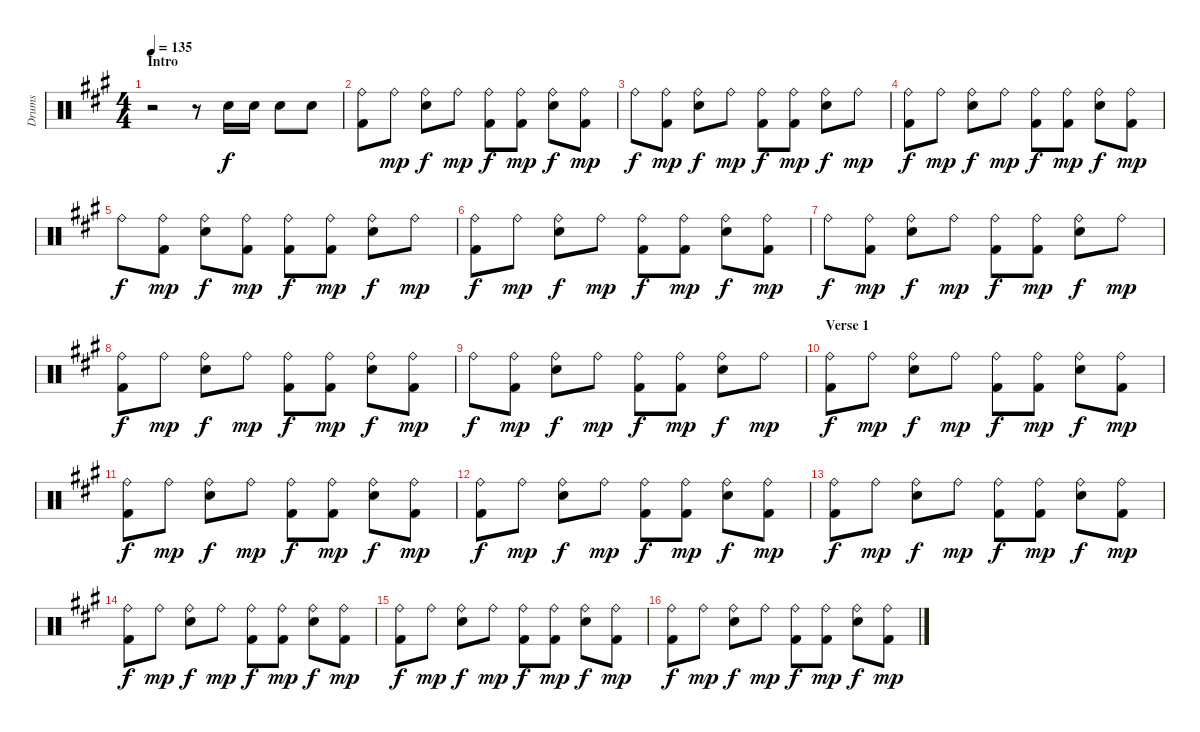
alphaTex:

\track ("Drums" "Drums") {instrument percussion}
\staff {score}
\articulation defaults
\ts (4 4)
\section ("" "Intro")
\tempo 135
\clef neutral
\ks a
r.2{dy f} r.8 "Electric Snare (hit)".16 "Electric Snare (hit)".16 "Electric Snare (hit)".8 "Electric Snare (hit)".8 |
("Ride (bell)" "Kick (hit) 2").8 "Ride (bell)".8{dy mp} ("Ride (bell)" "Electric Snare (hit)").8{dy f} "Ride (bell)".8{dy mp} ("Ride (bell)" "Kick (hit) 2").8{dy f} ("Ride (bell)" "Kick (hit) 2").8{dy mp} ("Ride (bell)" "Electric Snare (hit)").8{dy f} ("Ride (bell)" "Kick (hit) 2").8{dy mp} |
"Ride (bell)".8{dy f} ("Ride (bell)" "Kick (hit) 2").8{dy mp} ("Ride (bell)" "Electric Snare (hit)").8{dy f} "Ride (bell)".8{dy mp} ("Ride (bell)" "Kick (hit) 2").8{dy f} ("Ride (bell)" "Kick (hit) 2").8{dy mp} ("Ride (bell)" "Electric Snare (hit)").8{dy f} "Ride (bell)".8{dy mp} |
("Ride (bell)" "Kick (hit) 2").8{dy f} "Ride (bell)".8{dy mp} ("Ride (bell)" "Electric Snare (hit)").8{dy f} "Ride (bell)".8{dy mp} ("Ride (bell)" "Kick (hit) 2").8{dy f} ("Ride (bell)" "Kick (hit) 2").8{dy mp} ("Ride (bell)" "Electric Snare (hit)").8{dy f} ("Ride (bell)" "Kick (hit) 2").8{dy mp} |
"Ride (bell)".8{dy f} ("Ride (bell)" "Kick (hit) 2").8{dy mp} ("Ride (bell)" "Electric Snare (hit)").8{dy f} ("Ride (bell)" "Kick (hit) 2").8{dy mp} ("Ride (bell)" "Kick (hit) 2").8{dy f} ("Ride (bell)" "Kick (hit) 2").8{dy mp} ("Ride (bell)" "Electric Snare (hit)").8{dy f} "Ride (bell)".8{dy mp} |
("Ride (bell)" "Kick (hit) 2").8{dy f} "Ride (bell)".8{dy mp} ("Ride (bell)" "Electric Snare (hit)").8{dy f} "Ride (bell)".8{dy mp} ("Ride (bell)" "Kick (hit) 2").8{dy f} ("Ride (bell)" "Kick (hit) 2").8{dy mp} ("Ride (bell)" "Electric Snare (hit)").8{dy f} ("Ride (bell)" "Kick (hit) 2").8{dy mp} |
"Ride (bell)".8{dy f} ("Ride (bell)" "Kick (hit) 2").8{dy mp} ("Ride (bell)" "Electric Snare (hit)").8{dy f} "Ride (bell)".8{dy mp} ("Ride (bell)" "Kick (hit) 2").8{dy f} ("Ride (bell)" "Kick (hit) 2").8{dy mp} ("Ride (bell)" "Electric Snare (hit)").8{dy f} "Ride (bell)".8{dy mp} |
("Ride (bell)" "Kick (hit) 2").8{dy f} "Ride (bell)".8{dy mp} ("Ride (bell)" "Electric Snare (hit)").8{dy f} "Ride (bell)".8{dy mp} ("Ride (bell)" "Kick (hit) 2").8{dy f} ("Ride (bell)" "Kick (hit) 2").8{dy mp} ("Ride (bell)" "Electric Snare (hit)").8{dy f} ("Ride (bell)" "Kick (hit) 2").8{dy mp} |
"Ride (bell)".8{dy f} ("Ride (bell)" "Kick (hit) 2").8{dy mp} ("Ride (bell)" "Electric Snare (hit)").8{dy f} "Ride (bell)".8{dy mp} ("Ride (bell)" "Kick (hit) 2").8{dy f} ("Ride (bell)" "Kick (hit) 2").8{dy mp} ("Ride (bell)" "Electric Snare (hit)").8{dy f} "Ride (bell)".8{dy mp} |
\section ("" "Verse 1")
("Ride (bell)" "Kick (hit) 2").8{dy f} "Ride (bell)".8{dy mp} ("Ride (bell)" "Electric Snare (hit)").8{dy f} "Ride (bell)".8{dy mp} ("Ride (bell)" "Kick (hit) 2").8{dy f} ("Ride (bell)" "Kick (hit) 2").8{dy mp} ("Ride (bell)" "Electric Snare (hit)").8{dy f} ("Ride (bell)" "Kick (hit) 2").8{dy mp} |
("Ride (bell)" "Kick (hit) 2").8{dy f} "Ride (bell)".8{dy mp} ("Ride (bell)" "Electric Snare (hit)").8{dy f} "Ride (bell)".8{dy mp} ("Ride (bell)" "Kick (hit) 2").8{dy f} ("Ride (bell)" "Kick (hit) 2").8{dy mp} ("Ride (bell)" "Electric Snare (hit)").8{dy f} ("Ride (bell)" "Kick (hit) 2").8{dy mp} |
("Ride (bell)" "Kick (hit) 2").8{dy f} "Ride (bell)".8{dy mp} ("Ride (bell)" "Electric Snare (hit)").8{dy f} "Ride (bell)".8{dy mp} ("Ride (bell)" "Kick (hit) 2").8{dy f} ("Ride (bell)" "Kick (hit) 2").8{dy mp} ("Ride (bell)" "Electric Snare (hit)").8{dy f} ("Ride (bell)" "Kick (hit) 2").8{dy mp} |
("Ride (bell)" "Kick (hit) 2").8{dy f} "Ride (bell)".8{dy mp} ("Ride (bell)" "Electric Snare (hit)").8{dy f} "Ride (bell)".8{dy mp} ("Ride (bell)" "Kick (hit) 2").8{dy f} ("Ride (bell)" "Kick (hit) 2").8{dy mp} ("Ride (bell)" "Electric Snare (hit)").8{dy f} ("Ride (bell)" "Kick (hit) 2").8{dy mp} |
("Ride (bell)" "Kick (hit) 2").8{dy f} "Ride (bell)".8{dy mp} ("Ride (bell)" "Electric Snare (hit)").8{dy f} "Ride (bell)".8{dy mp} ("Ride (bell)" "Kick (hit) 2").8{dy f} ("Ride (bell)" "Kick (hit) 2").8{dy mp} ("Ride (bell)" "Electric Snare (hit)").8{dy f} ("Ride (bell)" "Kick (hit) 2").8{dy mp} |
("Ride (bell)" "Kick (hit) 2").8{dy f} "Ride (bell)".8{dy mp} ("Ride (bell)" "Electric Snare (hit)").8{dy f} "Ride (bell)".8{dy mp} ("Ride (bell)" "Kick (hit) 2").8{dy f} ("Ride (bell)" "Kick (hit) 2").8{dy mp} ("Ride (bell)" "Electric Snare (hit)").8{dy f} ("Ride (bell)" "Kick (hit) 2").8{dy mp} |
("Ride (bell)" "Kick (hit) 2").8{dy f} "Ride (bell)".8{dy mp} ("Ride (bell)" "Electric Snare (hit)").8{dy f} "Ride (bell)".8{dy mp} ("Ride (bell)" "Kick (hit) 2").8{dy f} ("Ride (bell)" "Kick (hit) 2").8{dy mp} ("Ride (bell)" "Electric Snare (hit)").8{dy f} ("Ride (bell)" "Kick (hit) 2").8{dy mp}
